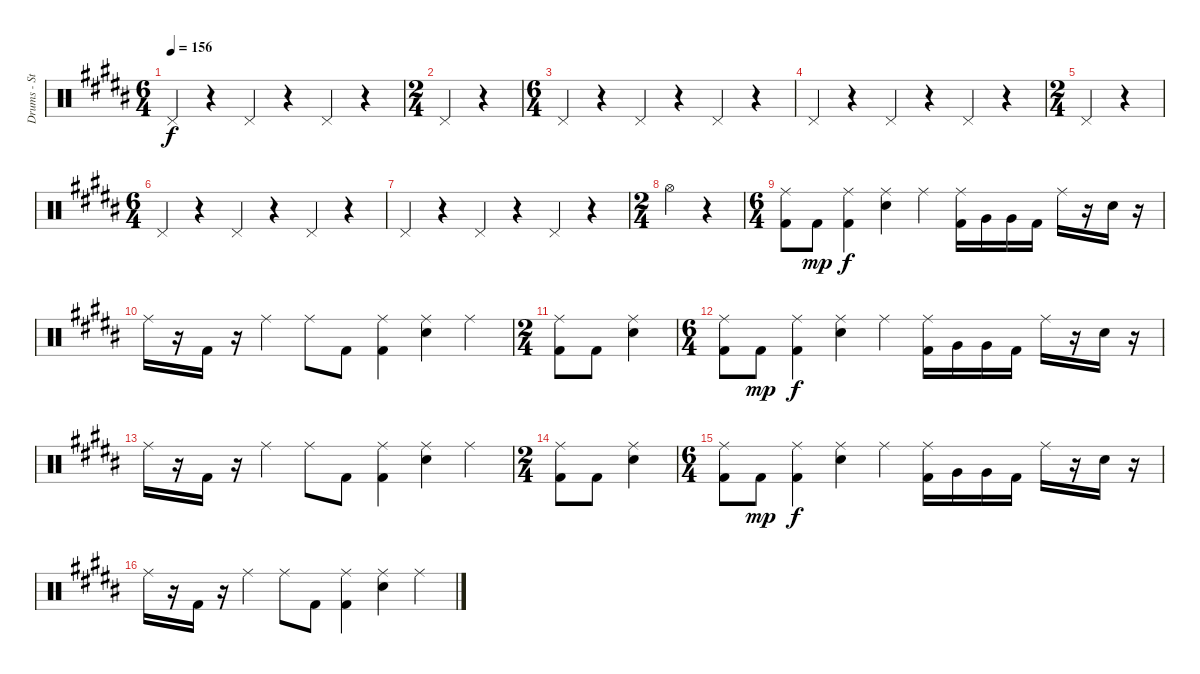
\track ("Drums - Steve Judd" "Drums - St") {instrument percussion}
\staff {score}
\articulation defaults
\ts (6 4)
\tempo 156
\clef neutral
\ks b "Pedal Hi-Hat (hit)".4{dy f}
r.4 "Pedal Hi-Hat (hit)".4 r.4 "Pedal Hi-Hat (hit)".4 r.4 |
\ts (2 4)
"Pedal Hi-Hat (hit)".4 r.4 |
\ts (6 4)
"Pedal Hi-Hat (hit)".4 r.4 "Pedal Hi-Hat (hit)".4 r.4 "Pedal Hi-Hat (hit)".4 r.4 |
"Pedal Hi-Hat (hit)".4 r.4 "Pedal Hi-Hat (hit)".4 r.4 "Pedal Hi-Hat (hit)".4 r.4 |
\ts (2 4)
"Pedal Hi-Hat (hit)".4 r.4 |
\ts (6 4)
"Pedal Hi-Hat (hit)".4 r.4 "Pedal Hi-Hat (hit)".4 r.4 "Pedal Hi-Hat (hit)".4 r.4 |
"Pedal Hi-Hat (hit)".4 r.4 "Pedal Hi-Hat (hit)".4 r.4 "Pedal Hi-Hat (hit)".4 r.4 |
\ts (2 4)
"Hi-Hat (open)".4 r.4 |
\ts (6 4)
("Ride (middle)" "Kick (hit) 2").8 "Kick (hit) 2".8{dy mp} ("Ride (middle)" "Kick (hit) 2").4{dy f} ("Electric Snare (hit)" "Ride (middle)").4 "Ride (middle)".4 ("Ride (middle)" "Kick (hit) 2").16 "Very Low Tom (hit)".16 "Very Low Tom (hit)".16 "Kick (hit) 2".16 "Ride (middle)".16 r.16 "Electric Snare (hit)".16 r.16 |
"Ride (middle)".16 r.16 "Kick (hit) 2".16 r.16 "Ride (middle)".4 "Ride (middle)".8 "Kick (hit) 2".8 ("Ride (middle)" "Kick (hit) 2").4 ("Electric Snare (hit)" "Ride (middle)").4 "Ride (middle)".4 |
\ts (2 4)
("Ride (middle)" "Kick (hit) 2").8 "Kick (hit) 2".8 ("Electric Snare (hit)" "Ride (middle)").4 |
\ts (6 4)
("Ride (middle)" "Kick (hit) 2").8 "Kick (hit) 2".8{dy mp} ("Ride (middle)" "Kick (hit) 2").4{dy f} ("Electric Snare (hit)" "Ride (middle)").4 "Ride (middle)".4 ("Ride (middle)" "Kick (hit) 2").16 "Very Low Tom (hit)".16 "Very Low Tom (hit)".16 "Kick (hit) 2".16 "Ride (middle)".16 r.16 "Electric Snare (hit)".16 r.16 |
"Ride (middle)".16 r.16 "Kick (hit) 2".16 r.16 "Ride (middle)".4 "Ride (middle)".8 "Kick (hit) 2".8 ("Ride (middle)" "Kick (hit) 2").4 ("Electric Snare (hit)" "Ride (middle)").4 "Ride (middle)".4 |
\ts (2 4)
("Ride (middle)" "Kick (hit) 2").8 "Kick (hit) 2".8 ("Electric Snare (hit)" "Ride (middle)").4 |
\ts (6 4)
("Ride (middle)" "Kick (hit) 2").8 "Kick (hit) 2".8{dy mp} ("Ride (middle)" "Kick (hit) 2").4{dy f} ("Electric Snare (hit)" "Ride (middle)").4 "Ride (middle)".4 ("Ride (middle)" "Kick (hit) 2").16 "Very Low Tom (hit)".16 "Very Low Tom (hit)".16 "Kick (hit) 2".16 "Ride (middle)".16 r.16 "Electric Snare (hit)".16 r.16 |
"Ride (middle)".16 r.16 "Kick (hit) 2".16 r.16 "Ride (middle)".4 "Ride (middle)".8 "Kick (hit) 2".8 ("Ride (middle)" "Kick (hit) 2").4 ("Electric Snare (hit)" "Ride (middle)").4 "Ride (middle)".4
